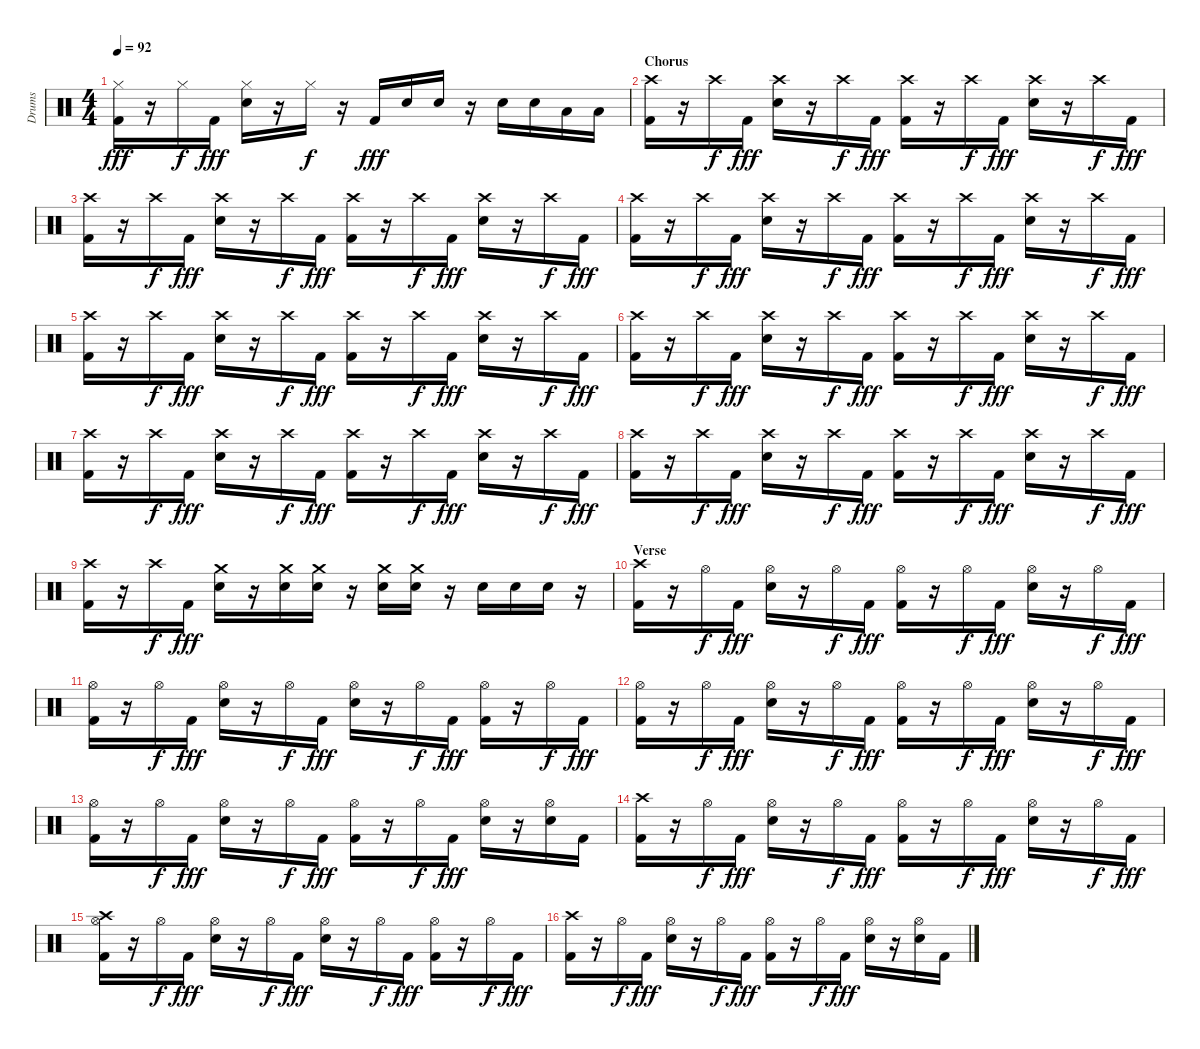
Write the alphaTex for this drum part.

\track ("Drums" "Drums") {instrument percussion}
\staff {score}
\articulation defaults
\ts (4 4)
\tempo 92
\clef neutral
\ks c
("Hi-Hat (closed)" "Kick (hit) 2").16{dy fff} r.16 "Hi-Hat (closed)".16{dy f} "Kick (hit) 2".16{dy fff} ("Hi-Hat (closed)" "Electric Snare (hit)").16 r.16 "Hi-Hat (closed)".16{dy f} r.16 "Kick (hit) 2".16{dy fff} "Electric Snare (hit)".16 "Electric Snare (hit)".16 r.16 "Electric Snare (hit)".16 "Electric Snare (hit)".16 "Low Floor Tom (hit)".16 "Low Floor Tom (hit)".16 |
\section ("" "Chorus")
("Crash high (hit)" "Kick (hit) 2").16 r.16 "Crash high (hit)".16{dy f} "Kick (hit) 2".16{dy fff} ("Crash high (hit)" "Electric Snare (hit)").16 r.16 "Crash high (hit)".16{dy f} "Kick (hit) 2".16{dy fff} ("Crash high (hit)" "Kick (hit) 2").16 r.16 "Crash high (hit)".16{dy f} "Kick (hit) 2".16{dy fff} ("Crash high (hit)" "Electric Snare (hit)").16 r.16 "Crash high (hit)".16{dy f} "Kick (hit) 2".16{dy fff} |
("Crash high (hit)" "Kick (hit) 2").16 r.16 "Crash high (hit)".16{dy f} "Kick (hit) 2".16{dy fff} ("Crash high (hit)" "Electric Snare (hit)").16 r.16 "Crash high (hit)".16{dy f} "Kick (hit) 2".16{dy fff} ("Crash high (hit)" "Kick (hit) 2").16 r.16 "Crash high (hit)".16{dy f} "Kick (hit) 2".16{dy fff} ("Crash high (hit)" "Electric Snare (hit)").16 r.16 "Crash high (hit)".16{dy f} "Kick (hit) 2".16{dy fff} |
("Crash high (hit)" "Kick (hit) 2").16 r.16 "Crash high (hit)".16{dy f} "Kick (hit) 2".16{dy fff} ("Crash high (hit)" "Electric Snare (hit)").16 r.16 "Crash high (hit)".16{dy f} "Kick (hit) 2".16{dy fff} ("Crash high (hit)" "Kick (hit) 2").16 r.16 "Crash high (hit)".16{dy f} "Kick (hit) 2".16{dy fff} ("Crash high (hit)" "Electric Snare (hit)").16 r.16 "Crash high (hit)".16{dy f} "Kick (hit) 2".16{dy fff} |
("Crash high (hit)" "Kick (hit) 2").16 r.16 "Crash high (hit)".16{dy f} "Kick (hit) 2".16{dy fff} ("Crash high (hit)" "Electric Snare (hit)").16 r.16 "Crash high (hit)".16{dy f} "Kick (hit) 2".16{dy fff} ("Crash high (hit)" "Kick (hit) 2").16 r.16 "Crash high (hit)".16{dy f} "Kick (hit) 2".16{dy fff} ("Crash high (hit)" "Electric Snare (hit)").16 r.16 "Crash high (hit)".16{dy f} "Kick (hit) 2".16{dy fff} |
("Crash high (hit)" "Kick (hit) 2").16 r.16 "Crash high (hit)".16{dy f} "Kick (hit) 2".16{dy fff} ("Crash high (hit)" "Electric Snare (hit)").16 r.16 "Crash high (hit)".16{dy f} "Kick (hit) 2".16{dy fff} ("Crash high (hit)" "Kick (hit) 2").16 r.16 "Crash high (hit)".16{dy f} "Kick (hit) 2".16{dy fff} ("Crash high (hit)" "Electric Snare (hit)").16 r.16 "Crash high (hit)".16{dy f} "Kick (hit) 2".16{dy fff} |
("Crash high (hit)" "Kick (hit) 2").16 r.16 "Crash high (hit)".16{dy f} "Kick (hit) 2".16{dy fff} ("Crash high (hit)" "Electric Snare (hit)").16 r.16 "Crash high (hit)".16{dy f} "Kick (hit) 2".16{dy fff} ("Crash high (hit)" "Kick (hit) 2").16 r.16 "Crash high (hit)".16{dy f} "Kick (hit) 2".16{dy fff} ("Crash high (hit)" "Electric Snare (hit)").16 r.16 "Crash high (hit)".16{dy f} "Kick (hit) 2".16{dy fff} |
("Crash high (hit)" "Kick (hit) 2").16 r.16 "Crash high (hit)".16{dy f} "Kick (hit) 2".16{dy fff} ("Crash high (hit)" "Electric Snare (hit)").16 r.16 "Crash high (hit)".16{dy f} "Kick (hit) 2".16{dy fff} ("Crash high (hit)" "Kick (hit) 2").16 r.16 "Crash high (hit)".16{dy f} "Kick (hit) 2".16{dy fff} ("Crash high (hit)" "Electric Snare (hit)").16 r.16 "Crash high (hit)".16{dy f} "Kick (hit) 2".16{dy fff} |
("Crash high (hit)" "Kick (hit) 2").16 r.16 "Crash high (hit)".16{dy f} "Kick (hit) 2".16{dy fff} ("Crash medium (hit)" "Electric Snare (hit)").16 r.16 ("Crash medium (hit)" "Electric Snare (hit)").16 ("Crash medium (hit)" "Electric Snare (hit)").16 r.16 ("Crash medium (hit)" "Electric Snare (hit)").16 ("Crash medium (hit)" "Electric Snare (hit)").16 r.16 "Electric Snare (hit)".16 "Electric Snare (hit)".16 "Electric Snare (hit)".16 r.16 |
\section ("" "Verse")
("Crash high (hit)" "Kick (hit) 2").16 r.16 "Hi-Hat (open)".16{dy f} "Kick (hit) 2".16{dy fff} ("Hi-Hat (open)" "Electric Snare (hit)").16 r.16 "Hi-Hat (open)".16{dy f} "Kick (hit) 2".16{dy fff} ("Hi-Hat (open)" "Kick (hit) 2").16 r.16 "Hi-Hat (open)".16{dy f} "Kick (hit) 2".16{dy fff} ("Hi-Hat (open)" "Electric Snare (hit)").16 r.16 "Hi-Hat (open)".16{dy f} "Kick (hit) 2".16{dy fff} |
("Hi-Hat (open)" "Kick (hit) 2").16 r.16 "Hi-Hat (open)".16{dy f} "Kick (hit) 2".16{dy fff} ("Hi-Hat (open)" "Electric Snare (hit)").16 r.16 "Hi-Hat (open)".16{dy f} "Kick (hit) 2".16{dy fff} ("Hi-Hat (open)" "Electric Snare (hit)").16 r.16 "Hi-Hat (open)".16{dy f} "Kick (hit) 2".16{dy fff} ("Hi-Hat (open)" "Kick (hit) 2").16 r.16 "Hi-Hat (open)".16{dy f} "Kick (hit) 2".16{dy fff} |
("Hi-Hat (open)" "Kick (hit) 2").16 r.16 "Hi-Hat (open)".16{dy f} "Kick (hit) 2".16{dy fff} ("Hi-Hat (open)" "Electric Snare (hit)").16 r.16 "Hi-Hat (open)".16{dy f} "Kick (hit) 2".16{dy fff} ("Hi-Hat (open)" "Kick (hit) 2").16 r.16 "Hi-Hat (open)".16{dy f} "Kick (hit) 2".16{dy fff} ("Hi-Hat (open)" "Electric Snare (hit)").16 r.16 "Hi-Hat (open)".16{dy f} "Kick (hit) 2".16{dy fff} |
("Hi-Hat (open)" "Kick (hit) 2").16 r.16 "Hi-Hat (open)".16{dy f} "Kick (hit) 2".16{dy fff} ("Hi-Hat (open)" "Electric Snare (hit)").16 r.16 "Hi-Hat (open)".16{dy f} "Kick (hit) 2".16{dy fff} ("Hi-Hat (open)" "Kick (hit) 2").16 r.16 "Hi-Hat (open)".16{dy f} "Kick (hit) 2".16{dy fff} ("Hi-Hat (open)" "Electric Snare (hit)").16 r.16 ("Hi-Hat (open)" "Electric Snare (hit)").16 "Kick (hit) 2".16 |
("Crash high (hit)" "Kick (hit) 2").16 r.16 "Hi-Hat (open)".16{dy f} "Kick (hit) 2".16{dy fff} ("Hi-Hat (open)" "Electric Snare (hit)").16 r.16 "Hi-Hat (open)".16{dy f} "Kick (hit) 2".16{dy fff} ("Hi-Hat (open)" "Kick (hit) 2").16 r.16 "Hi-Hat (open)".16{dy f} "Kick (hit) 2".16{dy fff} ("Hi-Hat (open)" "Electric Snare (hit)").16 r.16 "Hi-Hat (open)".16{dy f} "Kick (hit) 2".16{dy fff} |
("Crash high (hit)" "Hi-Hat (open)" "Kick (hit) 2").16 r.16 "Hi-Hat (open)".16{dy f} "Kick (hit) 2".16{dy fff} ("Hi-Hat (open)" "Electric Snare (hit)").16 r.16 "Hi-Hat (open)".16{dy f} "Kick (hit) 2".16{dy fff} ("Hi-Hat (open)" "Electric Snare (hit)").16 r.16 "Hi-Hat (open)".16{dy f} "Kick (hit) 2".16{dy fff} ("Hi-Hat (open)" "Kick (hit) 2").16 r.16 "Hi-Hat (open)".16{dy f} "Kick (hit) 2".16{dy fff} |
("Crash high (hit)" "Kick (hit) 2").16 r.16 "Hi-Hat (open)".16{dy f} "Kick (hit) 2".16{dy fff} ("Hi-Hat (open)" "Electric Snare (hit)").16 r.16 "Hi-Hat (open)".16{dy f} "Kick (hit) 2".16{dy fff} ("Hi-Hat (open)" "Kick (hit) 2").16 r.16 "Hi-Hat (open)".16{dy f} "Kick (hit) 2".16{dy fff} ("Hi-Hat (open)" "Electric Snare (hit)").16 r.16 ("Hi-Hat (open)" "Electric Snare (hit)").16 "Kick (hit) 2".16
